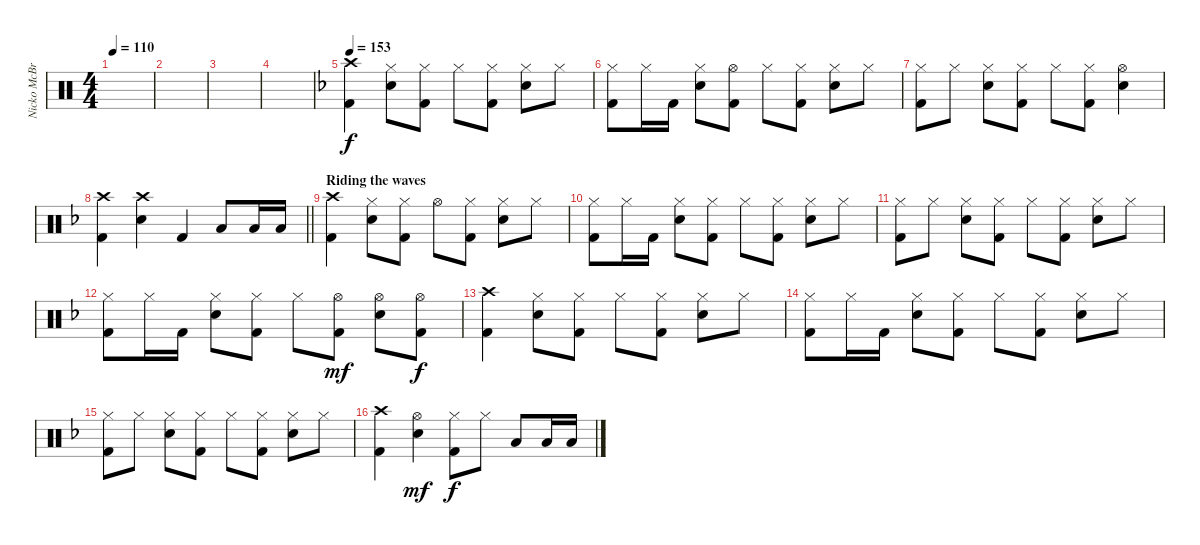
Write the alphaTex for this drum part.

\track ("Nicko McBrain" "Nicko McBr") {instrument percussion}
\staff {score}
\articulation defaults
\ts (4 4)
\tempo 110
\clef neutral
\ks c
|
|
|
|
\tempo 153
\ks f
("Crash high (hit)" "Kick (hit) 2").4 ("Hi-Hat (closed)" "Electric Snare (hit)").8 ("Hi-Hat (closed)" "Kick (hit) 2").8 "Hi-Hat (closed)".8 ("Hi-Hat (closed)" "Kick (hit) 2").8 ("Hi-Hat (closed)" "Electric Snare (hit)").8 "Hi-Hat (closed)".8 |
("Hi-Hat (closed)" "Kick (hit) 2").8 "Hi-Hat (closed)".16 "Kick (hit) 2".16 ("Hi-Hat (closed)" "Electric Snare (hit)").8 ("Hi-Hat (open)" "Kick (hit) 2").8 "Hi-Hat (closed)".8 ("Hi-Hat (closed)" "Kick (hit) 2").8 ("Hi-Hat (closed)" "Electric Snare (hit)").8 "Hi-Hat (closed)".8 |
("Hi-Hat (closed)" "Kick (hit) 2").8 "Hi-Hat (closed)".8 ("Hi-Hat (closed)" "Electric Snare (hit)").8 ("Hi-Hat (closed)" "Kick (hit) 2").8 "Hi-Hat (closed)".8 ("Hi-Hat (closed)" "Kick (hit) 2").8 ("Hi-Hat (open)" "Electric Snare (hit)").4 |
\barLineRight lightlight
("Crash high (hit)" "Kick (hit) 2").4 ("Crash high (hit)" "Electric Snare (hit)").4 "Kick (hit) 2".4 "Low Tom (hit)".8 "Low Tom (hit)".16 "Low Tom (hit)".16 |
\section ("" "Riding the waves")
("Crash high (hit)" "Kick (hit) 2").4 ("Hi-Hat (closed)" "Electric Snare (hit)").8 ("Hi-Hat (closed)" "Kick (hit) 2").8 "Hi-Hat (open)".8 ("Hi-Hat (closed)" "Kick (hit) 2").8 ("Hi-Hat (closed)" "Electric Snare (hit)").8 "Hi-Hat (closed)".8 |
("Hi-Hat (closed)" "Kick (hit) 2").8 "Hi-Hat (closed)".16 "Kick (hit) 2".16 ("Hi-Hat (closed)" "Electric Snare (hit)").8 ("Hi-Hat (closed)" "Kick (hit) 2").8 "Hi-Hat (closed)".8 ("Hi-Hat (closed)" "Kick (hit) 2").8 ("Hi-Hat (closed)" "Electric Snare (hit)").8 "Hi-Hat (closed)".8 |
("Hi-Hat (closed)" "Kick (hit) 2").8 "Hi-Hat (closed)".8 ("Hi-Hat (closed)" "Electric Snare (hit)").8 ("Hi-Hat (closed)" "Kick (hit) 2").8 "Hi-Hat (closed)".8 ("Hi-Hat (closed)" "Kick (hit) 2").8 ("Hi-Hat (closed)" "Electric Snare (hit)").8 "Hi-Hat (closed)".8 |
("Hi-Hat (closed)" "Kick (hit) 2").8 "Hi-Hat (closed)".16 "Kick (hit) 2".16 ("Hi-Hat (closed)" "Electric Snare (hit)").8 ("Hi-Hat (closed)" "Kick (hit) 2").8 "Hi-Hat (closed)".8 ("Hi-Hat (open)" "Kick (hit) 2").8{dy mf} ("Hi-Hat (open)" "Electric Snare (hit)").8 ("Hi-Hat (open)" "Kick (hit) 2").8{dy f} |
("Crash high (hit)" "Kick (hit) 2").4 ("Hi-Hat (closed)" "Electric Snare (hit)").8 ("Hi-Hat (closed)" "Kick (hit) 2").8 "Hi-Hat (closed)".8 ("Hi-Hat (closed)" "Kick (hit) 2").8 ("Hi-Hat (closed)" "Electric Snare (hit)").8 "Hi-Hat (closed)".8 |
("Hi-Hat (closed)" "Kick (hit) 2").8 "Hi-Hat (closed)".16 "Kick (hit) 2".16 ("Hi-Hat (closed)" "Electric Snare (hit)").8 ("Hi-Hat (closed)" "Kick (hit) 2").8 "Hi-Hat (closed)".8 ("Hi-Hat (closed)" "Kick (hit) 2").8 ("Hi-Hat (closed)" "Electric Snare (hit)").8 "Hi-Hat (closed)".8 |
("Hi-Hat (closed)" "Kick (hit) 2").8 "Hi-Hat (closed)".8 ("Hi-Hat (closed)" "Electric Snare (hit)").8 ("Hi-Hat (closed)" "Kick (hit) 2").8 "Hi-Hat (closed)".8 ("Hi-Hat (closed)" "Kick (hit) 2").8 ("Hi-Hat (closed)" "Electric Snare (hit)").8 "Hi-Hat (closed)".8 |
("Crash high (hit)" "Kick (hit) 2").4 ("Hi-Hat (open)" "Electric Snare (hit)").4{dy mf} ("Hi-Hat (closed)" "Kick (hit) 2").8{dy f} "Hi-Hat (closed)".8 "Low Tom (hit)".8 "Low Tom (hit)".16 "Low Tom (hit)".16
